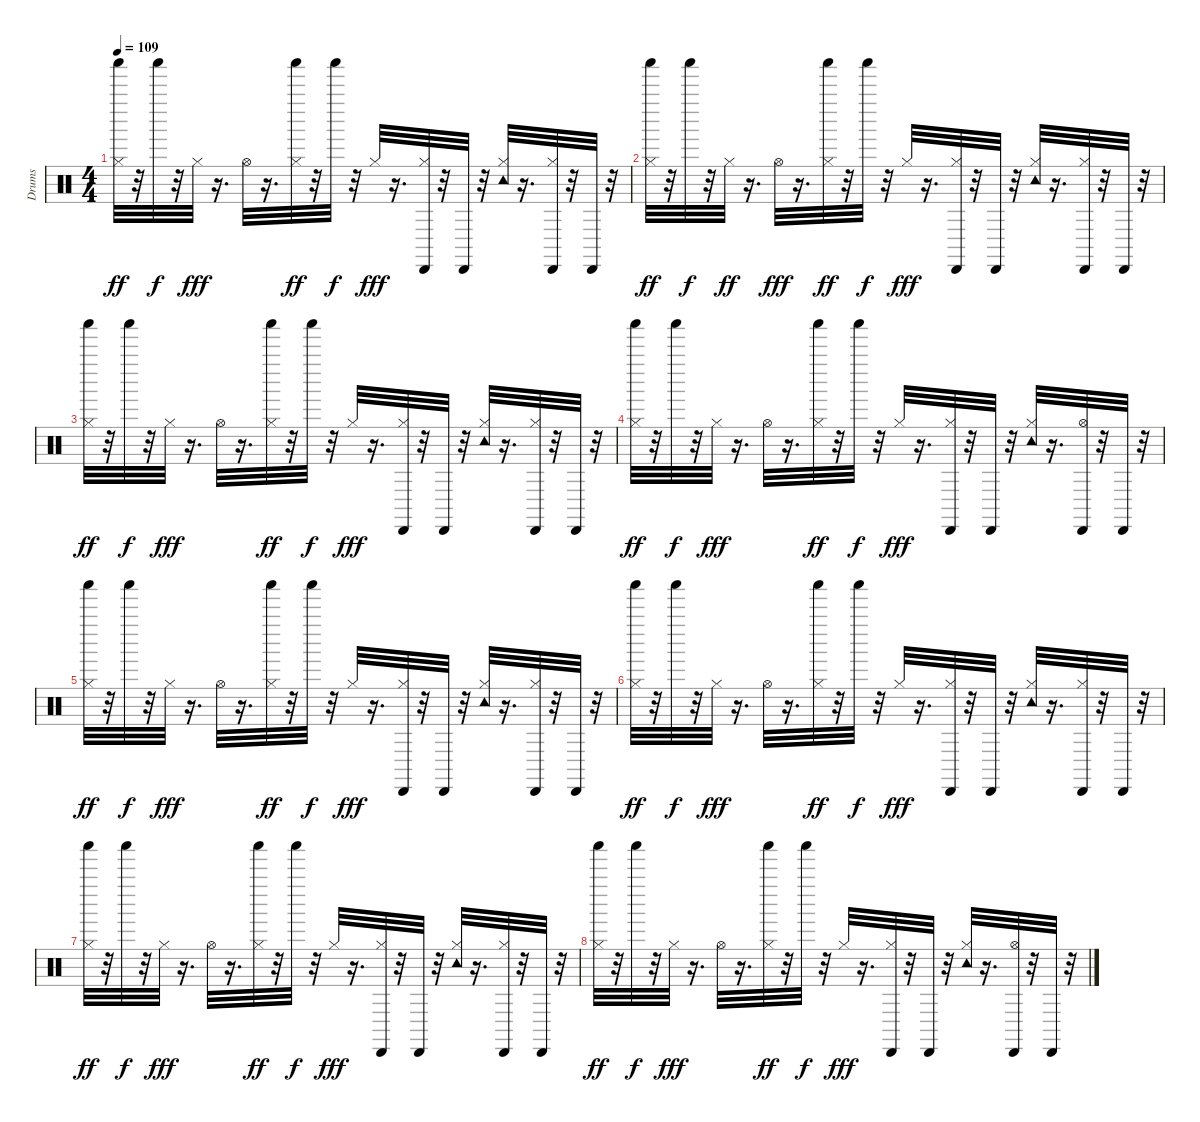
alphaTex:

\track ("Drums               " "Drums     ") {instrument percussion}
\staff {score}
\articulation defaults
\ts (4 4)
\tempo 109
\clef neutral
\ks c
("Hi-Hat (closed)" "Shaker (hit)").32{dy ff} r.32 "Shaker (hit)".32{dy f} r.32 "Hi-Hat (closed)".32{dy fff} r.16{d} "Hi-Hat (open)".32 r.16{d} ("Hi-Hat (closed)" "Shaker (hit)").32{dy ff} r.32 "Shaker (hit)".32{dy f} r.32 "Hi-Hat (closed)".32{dy fff} r.16{d} ("Hi-Hat (closed)" "Cabasa (hit)").32 r.32 "Cabasa (hit)".32 r.32 ("Hi-Hat (closed)" "Tambourine (hit)").32 r.16{d} ("Hi-Hat (closed)" "Cabasa (hit)").32 r.32 "Cabasa (hit)".32 r.32 |
("Hi-Hat (closed)" "Shaker (hit)").32{dy ff} r.32 "Shaker (hit)".32{dy f} r.32 "Hi-Hat (closed)".32{dy ff} r.16{d} "Hi-Hat (open)".32{dy fff} r.16{d} ("Hi-Hat (closed)" "Shaker (hit)").32{dy ff} r.32 "Shaker (hit)".32{dy f} r.32 "Hi-Hat (closed)".32{dy fff} r.16{d} ("Hi-Hat (closed)" "Cabasa (hit)").32 r.32 "Cabasa (hit)".32 r.32 ("Hi-Hat (closed)" "Tambourine (hit)").32 r.16{d} ("Hi-Hat (closed)" "Cabasa (hit)").32 r.32 "Cabasa (hit)".32 r.32 |
("Hi-Hat (closed)" "Shaker (hit)").32{dy ff} r.32 "Shaker (hit)".32{dy f} r.32 "Hi-Hat (closed)".32{dy fff} r.16{d} "Hi-Hat (open)".32 r.16{d} ("Hi-Hat (closed)" "Shaker (hit)").32{dy ff} r.32 "Shaker (hit)".32{dy f} r.32 "Hi-Hat (closed)".32{dy fff} r.16{d} ("Hi-Hat (closed)" "Cabasa (hit)").32 r.32 "Cabasa (hit)".32 r.32 ("Hi-Hat (closed)" "Tambourine (hit)").32 r.16{d} ("Hi-Hat (closed)" "Cabasa (hit)").32 r.32 "Cabasa (hit)".32 r.32 |
("Hi-Hat (closed)" "Shaker (hit)").32{dy ff} r.32 "Shaker (hit)".32{dy f} r.32 "Hi-Hat (closed)".32{dy fff} r.16{d} "Hi-Hat (open)".32 r.16{d} ("Hi-Hat (closed)" "Shaker (hit)").32{dy ff} r.32 "Shaker (hit)".32{dy f} r.32 "Hi-Hat (closed)".32{dy fff} r.16{d} ("Hi-Hat (closed)" "Cabasa (hit)").32 r.32 "Cabasa (hit)".32 r.32 ("Hi-Hat (closed)" "Tambourine (hit)").32 r.16{d} ("Hi-Hat (open)" "Cabasa (hit)").32 r.32 "Cabasa (hit)".32 r.32 |
("Hi-Hat (closed)" "Shaker (hit)").32{dy ff} r.32 "Shaker (hit)".32{dy f} r.32 "Hi-Hat (closed)".32{dy fff} r.16{d} "Hi-Hat (open)".32 r.16{d} ("Hi-Hat (closed)" "Shaker (hit)").32{dy ff} r.32 "Shaker (hit)".32{dy f} r.32 "Hi-Hat (closed)".32{dy fff} r.16{d} ("Hi-Hat (closed)" "Cabasa (hit)").32 r.32 "Cabasa (hit)".32 r.32 ("Hi-Hat (closed)" "Tambourine (hit)").32 r.16{d} ("Hi-Hat (closed)" "Cabasa (hit)").32 r.32 "Cabasa (hit)".32 r.32 |
("Hi-Hat (closed)" "Shaker (hit)").32{dy ff} r.32 "Shaker (hit)".32{dy f} r.32 "Hi-Hat (closed)".32{dy fff} r.16{d} "Hi-Hat (open)".32 r.16{d} ("Hi-Hat (closed)" "Shaker (hit)").32{dy ff} r.32 "Shaker (hit)".32{dy f} r.32 "Hi-Hat (closed)".32{dy fff} r.16{d} ("Hi-Hat (closed)" "Cabasa (hit)").32 r.32 "Cabasa (hit)".32 r.32 ("Hi-Hat (closed)" "Tambourine (hit)").32 r.16{d} ("Hi-Hat (closed)" "Cabasa (hit)").32 r.32 "Cabasa (hit)".32 r.32 |
("Hi-Hat (closed)" "Shaker (hit)").32{dy ff} r.32 "Shaker (hit)".32{dy f} r.32 "Hi-Hat (closed)".32{dy fff} r.16{d} "Hi-Hat (open)".32 r.16{d} ("Hi-Hat (closed)" "Shaker (hit)").32{dy ff} r.32 "Shaker (hit)".32{dy f} r.32 "Hi-Hat (closed)".32{dy fff} r.16{d} ("Hi-Hat (closed)" "Cabasa (hit)").32 r.32 "Cabasa (hit)".32 r.32 ("Hi-Hat (closed)" "Tambourine (hit)").32 r.16{d} ("Hi-Hat (closed)" "Cabasa (hit)").32 r.32 "Cabasa (hit)".32 r.32 |
("Hi-Hat (closed)" "Shaker (hit)").32{dy ff} r.32 "Shaker (hit)".32{dy f} r.32 "Hi-Hat (closed)".32{dy fff} r.16{d} "Hi-Hat (open)".32 r.16{d} ("Hi-Hat (closed)" "Shaker (hit)").32{dy ff} r.32 "Shaker (hit)".32{dy f} r.32 "Hi-Hat (closed)".32{dy fff} r.16{d} ("Hi-Hat (closed)" "Cabasa (hit)").32 r.32 "Cabasa (hit)".32 r.32 ("Hi-Hat (closed)" "Tambourine (hit)").32 r.16{d} ("Hi-Hat (open)" "Cabasa (hit)").32 r.32 "Cabasa (hit)".32 r.32
